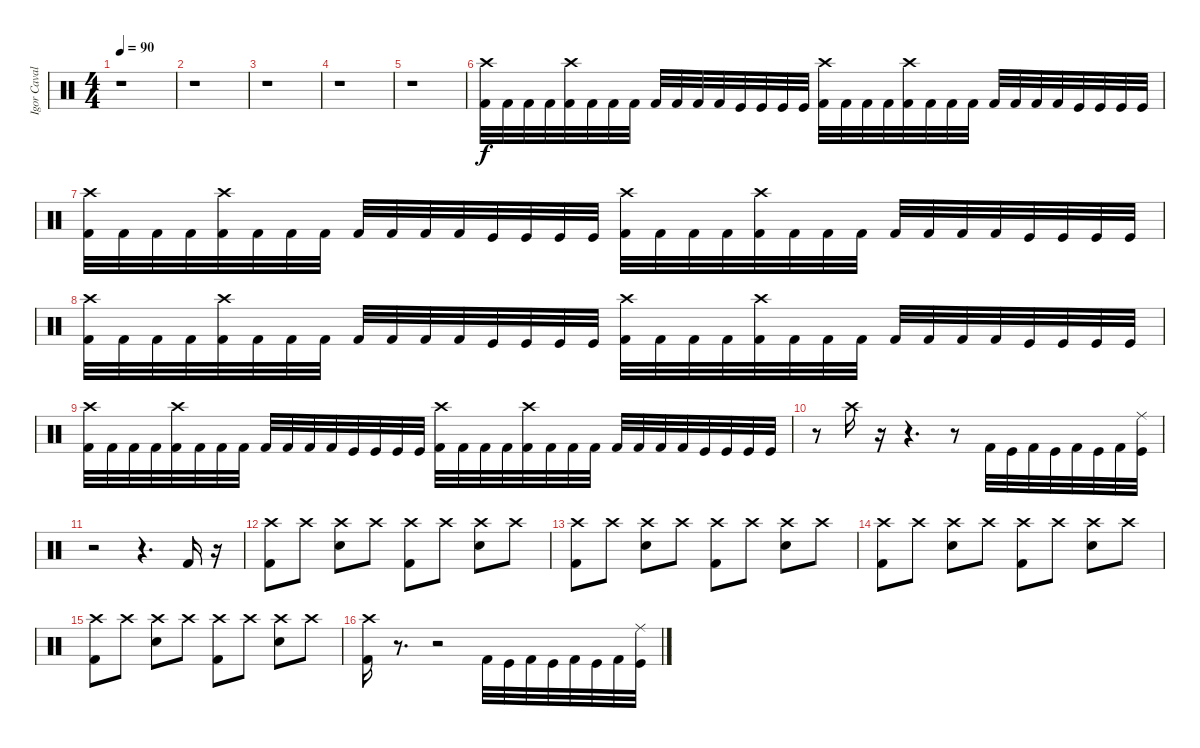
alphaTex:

\track ("Igor Cavalera" "Igor Caval") {instrument percussion}
\staff {score}
\articulation defaults
\ts (4 4)
\tempo 90
\clef neutral
\ks c
r.1{dy f} |
r.1 |
r.1 |
r.1 |
r.1 |
("Crash high (hit)" "Kick (hit) 2").32 "Kick (hit) 2".32 "Kick (hit) 2".32 "Kick (hit) 2".32 ("Crash high (hit)" "Kick (hit) 2").32 "Kick (hit) 2".32 "Kick (hit) 2".32 "Kick (hit) 2".32 "Kick (hit) 2".32 "Kick (hit) 2".32 "Kick (hit) 2".32 "Kick (hit) 2".32 "Kick (hit)".32 "Kick (hit)".32 "Kick (hit)".32 "Kick (hit)".32 ("Crash high (hit)" "Kick (hit) 2").32 "Kick (hit) 2".32 "Kick (hit) 2".32 "Kick (hit) 2".32 ("Crash high (hit)" "Kick (hit) 2").32 "Kick (hit) 2".32 "Kick (hit) 2".32 "Kick (hit) 2".32 "Kick (hit) 2".32 "Kick (hit) 2".32 "Kick (hit) 2".32 "Kick (hit) 2".32 "Kick (hit)".32 "Kick (hit)".32 "Kick (hit)".32 "Kick (hit)".32 |
("Crash high (hit)" "Kick (hit) 2").32 "Kick (hit) 2".32 "Kick (hit) 2".32 "Kick (hit) 2".32 ("Crash high (hit)" "Kick (hit) 2").32 "Kick (hit) 2".32 "Kick (hit) 2".32 "Kick (hit) 2".32 "Kick (hit) 2".32 "Kick (hit) 2".32 "Kick (hit) 2".32 "Kick (hit) 2".32 "Kick (hit)".32 "Kick (hit)".32 "Kick (hit)".32 "Kick (hit)".32 ("Crash high (hit)" "Kick (hit) 2").32 "Kick (hit) 2".32 "Kick (hit) 2".32 "Kick (hit) 2".32 ("Crash high (hit)" "Kick (hit) 2").32 "Kick (hit) 2".32 "Kick (hit) 2".32 "Kick (hit) 2".32 "Kick (hit) 2".32 "Kick (hit) 2".32 "Kick (hit) 2".32 "Kick (hit) 2".32 "Kick (hit)".32 "Kick (hit)".32 "Kick (hit)".32 "Kick (hit)".32 |
("Crash high (hit)" "Kick (hit) 2").32 "Kick (hit) 2".32 "Kick (hit) 2".32 "Kick (hit) 2".32 ("Crash high (hit)" "Kick (hit) 2").32 "Kick (hit) 2".32 "Kick (hit) 2".32 "Kick (hit) 2".32 "Kick (hit) 2".32 "Kick (hit) 2".32 "Kick (hit) 2".32 "Kick (hit) 2".32 "Kick (hit)".32 "Kick (hit)".32 "Kick (hit)".32 "Kick (hit)".32 ("Crash high (hit)" "Kick (hit) 2").32 "Kick (hit) 2".32 "Kick (hit) 2".32 "Kick (hit) 2".32 ("Crash high (hit)" "Kick (hit) 2").32 "Kick (hit) 2".32 "Kick (hit) 2".32 "Kick (hit) 2".32 "Kick (hit) 2".32 "Kick (hit) 2".32 "Kick (hit) 2".32 "Kick (hit) 2".32 "Kick (hit)".32 "Kick (hit)".32 "Kick (hit)".32 "Kick (hit)".32 |
("Crash high (hit)" "Kick (hit) 2").32 "Kick (hit) 2".32 "Kick (hit) 2".32 "Kick (hit) 2".32 ("Crash high (hit)" "Kick (hit) 2").32 "Kick (hit) 2".32 "Kick (hit) 2".32 "Kick (hit) 2".32 "Kick (hit) 2".32 "Kick (hit) 2".32 "Kick (hit) 2".32 "Kick (hit) 2".32 "Kick (hit)".32 "Kick (hit)".32 "Kick (hit)".32 "Kick (hit)".32 ("Crash high (hit)" "Kick (hit) 2").32 "Kick (hit) 2".32 "Kick (hit) 2".32 "Kick (hit) 2".32 ("Crash high (hit)" "Kick (hit) 2").32 "Kick (hit) 2".32 "Kick (hit) 2".32 "Kick (hit) 2".32 "Kick (hit) 2".32 "Kick (hit) 2".32 "Kick (hit) 2".32 "Kick (hit) 2".32 "Kick (hit)".32 "Kick (hit)".32 "Kick (hit)".32 "Kick (hit)".32 |
\section ("" "")
r.8 "Crash high (hit)".16 r.16 r.4{d} r.8 "Kick (hit) 2".32 "Kick (hit)".32 "Kick (hit) 2".32 "Kick (hit)".32 "Kick (hit) 2".32 "Kick (hit)".32 "Kick (hit) 2".32 ("Kick (hit)" "Ride (middle)").32 |
r.2 r.4{d} "Kick (hit) 2".16 r.16 |
\section ("" "")
("Crash high (hit)" "Kick (hit) 2").8 "Crash high (hit)".8 ("Crash high (hit)" "Snare (hit) 2").8 "Crash high (hit)".8 ("Crash high (hit)" "Kick (hit) 2").8 "Crash high (hit)".8 ("Crash high (hit)" "Snare (hit) 2").8 "Crash high (hit)".8 |
("Crash high (hit)" "Kick (hit) 2").8 "Crash high (hit)".8 ("Crash high (hit)" "Snare (hit) 2").8 "Crash high (hit)".8 ("Crash high (hit)" "Kick (hit) 2").8 "Crash high (hit)".8 ("Crash high (hit)" "Snare (hit) 2").8 "Crash high (hit)".8 |
("Crash high (hit)" "Kick (hit) 2").8 "Crash high (hit)".8 ("Crash high (hit)" "Snare (hit) 2").8 "Crash high (hit)".8 ("Crash high (hit)" "Kick (hit) 2").8 "Crash high (hit)".8 ("Crash high (hit)" "Snare (hit) 2").8 "Crash high (hit)".8 |
("Crash high (hit)" "Kick (hit) 2").8 "Crash high (hit)".8 ("Crash high (hit)" "Snare (hit) 2").8 "Crash high (hit)".8 ("Crash high (hit)" "Kick (hit) 2").8 "Crash high (hit)".8 ("Crash high (hit)" "Snare (hit) 2").8 "Crash high (hit)".8 |
\section ("" "")
("Kick (hit) 2" "Crash high (hit)").16 r.8{d} r.2 "Kick (hit) 2".32 "Kick (hit)".32 "Kick (hit) 2".32 "Kick (hit)".32 "Kick (hit) 2".32 "Kick (hit)".32 "Kick (hit) 2".32 ("Kick (hit)" "Ride (middle)").32
